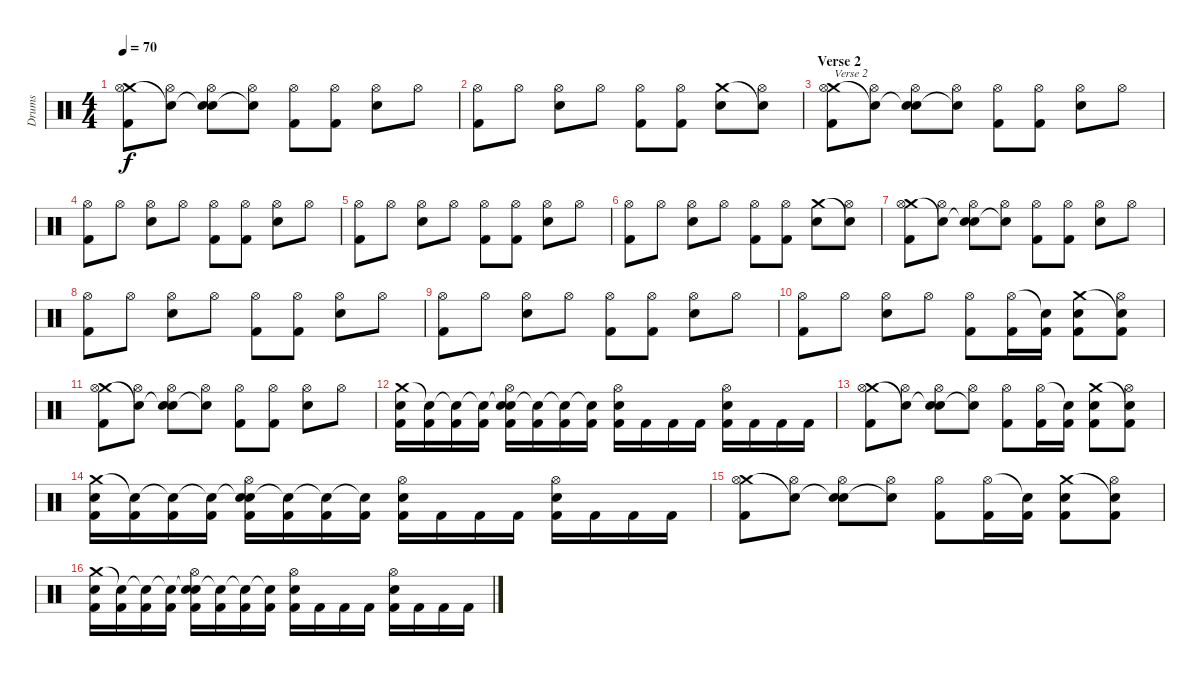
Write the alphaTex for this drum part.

\track ("Drums" "Drums") {instrument percussion}
\staff {score}
\articulation defaults
\ts (4 4)
\tempo 70
\clef neutral
\ks c
("Crash medium (hit)" "Hi-Hat (open)" "Kick (hit) 2").8{dy f} ("Snare (hit)"{t} "Hi-Hat (open)").8 ("Snare (hit)"{t} "Hi-Hat (open)" "Electric Snare (hit)").8 ("Snare (hit)"{t} "Hi-Hat (open)").8 ("Hi-Hat (open)" "Kick (hit) 2").8 ("Hi-Hat (open)" "Kick (hit) 2").8 ("Hi-Hat (open)" "Electric Snare (hit)").8 "Hi-Hat (open)".8 |
("Hi-Hat (open)" "Kick (hit) 2").8 "Hi-Hat (open)".8 ("Hi-Hat (open)" "Electric Snare (hit)").8 "Hi-Hat (open)".8 ("Hi-Hat (open)" "Kick (hit) 2").8 ("Hi-Hat (open)" "Kick (hit) 2").8 ("Crash medium (hit)" "Electric Snare (hit)").8 ("Snare (hit)"{t} "Hi-Hat (open)").8 |
\section ("" "Verse 2")
("Crash medium (hit)" "Hi-Hat (open)" "Kick (hit) 2").8{txt "Verse 2"} ("Snare (hit)"{t} "Hi-Hat (open)").8 ("Snare (hit)"{t} "Hi-Hat (open)" "Electric Snare (hit)").8 ("Snare (hit)"{t} "Hi-Hat (open)").8 ("Hi-Hat (open)" "Kick (hit) 2").8 ("Hi-Hat (open)" "Kick (hit) 2").8 ("Hi-Hat (open)" "Electric Snare (hit)").8 "Hi-Hat (open)".8 |
("Hi-Hat (open)" "Kick (hit) 2").8 "Hi-Hat (open)".8 ("Hi-Hat (open)" "Electric Snare (hit)").8 "Hi-Hat (open)".8 ("Hi-Hat (open)" "Kick (hit) 2").8 ("Hi-Hat (open)" "Kick (hit) 2").8 ("Hi-Hat (open)" "Electric Snare (hit)").8 "Hi-Hat (open)".8 |
("Hi-Hat (open)" "Kick (hit) 2").8 "Hi-Hat (open)".8 ("Hi-Hat (open)" "Electric Snare (hit)").8 "Hi-Hat (open)".8 ("Hi-Hat (open)" "Kick (hit) 2").8 ("Hi-Hat (open)" "Kick (hit) 2").8 ("Hi-Hat (open)" "Electric Snare (hit)").8 "Hi-Hat (open)".8 |
("Hi-Hat (open)" "Kick (hit) 2").8 "Hi-Hat (open)".8 ("Hi-Hat (open)" "Electric Snare (hit)").8 "Hi-Hat (open)".8 ("Hi-Hat (open)" "Kick (hit) 2").8 ("Hi-Hat (open)" "Kick (hit) 2").8 ("Crash medium (hit)" "Electric Snare (hit)").8 ("Snare (hit)"{t} "Hi-Hat (open)").8 |
("Crash medium (hit)" "Hi-Hat (open)" "Kick (hit) 2").8 ("Snare (hit)"{t} "Hi-Hat (open)").8 ("Snare (hit)"{t} "Hi-Hat (open)" "Electric Snare (hit)").8 ("Snare (hit)"{t} "Hi-Hat (open)").8 ("Hi-Hat (open)" "Kick (hit) 2").8 ("Hi-Hat (open)" "Kick (hit) 2").8 ("Hi-Hat (open)" "Electric Snare (hit)").8 "Hi-Hat (open)".8 |
("Hi-Hat (open)" "Kick (hit) 2").8 "Hi-Hat (open)".8 ("Hi-Hat (open)" "Electric Snare (hit)").8 "Hi-Hat (open)".8 ("Hi-Hat (open)" "Kick (hit) 2").8 ("Hi-Hat (open)" "Kick (hit) 2").8 ("Hi-Hat (open)" "Electric Snare (hit)").8 "Hi-Hat (open)".8 |
("Hi-Hat (open)" "Kick (hit) 2").8 "Hi-Hat (open)".8 ("Hi-Hat (open)" "Electric Snare (hit)").8 "Hi-Hat (open)".8 ("Hi-Hat (open)" "Kick (hit) 2").8 ("Hi-Hat (open)" "Kick (hit) 2").8 ("Hi-Hat (open)" "Electric Snare (hit)").8 "Hi-Hat (open)".8 |
("Hi-Hat (open)" "Kick (hit) 2").8 "Hi-Hat (open)".8 ("Hi-Hat (open)" "Electric Snare (hit)").8 "Hi-Hat (open)".8 ("Hi-Hat (open)" "Kick (hit) 2").8 ("Hi-Hat (open)" "Kick (hit) 2").16 ("Snare (hit)"{t} "Kick (hit) 2").16 ("Crash medium (hit)" "Electric Snare (hit)" "Kick (hit) 2").8 ("Snare (hit)"{t} "Hi-Hat (open)" "Kick (hit) 2").8 |
("Crash medium (hit)" "Hi-Hat (open)" "Kick (hit) 2").8 ("Snare (hit)"{t} "Hi-Hat (open)").8 ("Snare (hit)"{t} "Hi-Hat (open)" "Electric Snare (hit)").8 ("Snare (hit)"{t} "Hi-Hat (open)").8 ("Hi-Hat (open)" "Kick (hit) 2").8 ("Hi-Hat (open)" "Kick (hit) 2").8 ("Hi-Hat (open)" "Electric Snare (hit)").8 "Hi-Hat (open)".8 |
("Crash medium (hit)" "Electric Snare (hit)" "Kick (hit) 2").16 ("Snare (hit)"{t} "Kick (hit) 2").16 ("Snare (hit)"{t} "Kick (hit) 2").16 ("Snare (hit)"{t} "Kick (hit) 2").16 ("Snare (hit)"{t} "Hi-Hat (open)" "Electric Snare (hit)" "Kick (hit) 2").16 ("Snare (hit)"{t} "Kick (hit) 2").16 ("Snare (hit)"{t} "Kick (hit) 2").16 ("Snare (hit)"{t} "Kick (hit) 2").16 ("Hi-Hat (open)" "Electric Snare (hit)" "Kick (hit) 2").16 "Kick (hit) 2".16 "Kick (hit) 2".16 "Kick (hit) 2".16 ("Hi-Hat (open)" "Electric Snare (hit)" "Kick (hit) 2").16 "Kick (hit) 2".16 "Kick (hit) 2".16 "Kick (hit) 2".16 |
("Crash medium (hit)" "Hi-Hat (open)" "Kick (hit) 2").8 ("Snare (hit)"{t} "Hi-Hat (open)").8 ("Snare (hit)"{t} "Hi-Hat (open)" "Electric Snare (hit)").8 ("Snare (hit)"{t} "Hi-Hat (open)").8 ("Hi-Hat (open)" "Kick (hit) 2").8 ("Hi-Hat (open)" "Kick (hit) 2").16 ("Snare (hit)"{t} "Kick (hit) 2").16 ("Crash medium (hit)" "Electric Snare (hit)" "Kick (hit) 2").8 ("Snare (hit)"{t} "Hi-Hat (open)" "Kick (hit) 2").8 |
("Crash medium (hit)" "Electric Snare (hit)" "Kick (hit) 2").16 ("Snare (hit)"{t} "Kick (hit) 2").16 ("Snare (hit)"{t} "Kick (hit) 2").16 ("Snare (hit)"{t} "Kick (hit) 2").16 ("Snare (hit)"{t} "Hi-Hat (open)" "Electric Snare (hit)" "Kick (hit) 2").16 ("Snare (hit)"{t} "Kick (hit) 2").16 ("Snare (hit)"{t} "Kick (hit) 2").16 ("Snare (hit)"{t} "Kick (hit) 2").16 ("Hi-Hat (open)" "Electric Snare (hit)" "Kick (hit) 2").16 "Kick (hit) 2".16 "Kick (hit) 2".16 "Kick (hit) 2".16 ("Hi-Hat (open)" "Electric Snare (hit)" "Kick (hit) 2").16 "Kick (hit) 2".16 "Kick (hit) 2".16 "Kick (hit) 2".16 |
("Crash medium (hit)" "Hi-Hat (open)" "Kick (hit) 2").8 ("Snare (hit)"{t} "Hi-Hat (open)").8 ("Snare (hit)"{t} "Hi-Hat (open)" "Electric Snare (hit)").8 ("Snare (hit)"{t} "Hi-Hat (open)").8 ("Hi-Hat (open)" "Kick (hit) 2").8 ("Hi-Hat (open)" "Kick (hit) 2").16 ("Snare (hit)"{t} "Kick (hit) 2").16 ("Crash medium (hit)" "Electric Snare (hit)" "Kick (hit) 2").8 ("Snare (hit)"{t} "Hi-Hat (open)" "Kick (hit) 2").8 |
("Crash medium (hit)" "Electric Snare (hit)" "Kick (hit) 2").16 ("Snare (hit)"{t} "Kick (hit) 2").16 ("Snare (hit)"{t} "Kick (hit) 2").16 ("Snare (hit)"{t} "Kick (hit) 2").16 ("Snare (hit)"{t} "Hi-Hat (open)" "Electric Snare (hit)" "Kick (hit) 2").16 ("Snare (hit)"{t} "Kick (hit) 2").16 ("Snare (hit)"{t} "Kick (hit) 2").16 ("Snare (hit)"{t} "Kick (hit) 2").16 ("Hi-Hat (open)" "Electric Snare (hit)" "Kick (hit) 2").16 "Kick (hit) 2".16 "Kick (hit) 2".16 "Kick (hit) 2".16 ("Hi-Hat (open)" "Electric Snare (hit)" "Kick (hit) 2").16 "Kick (hit) 2".16 "Kick (hit) 2".16 "Kick (hit) 2".16
